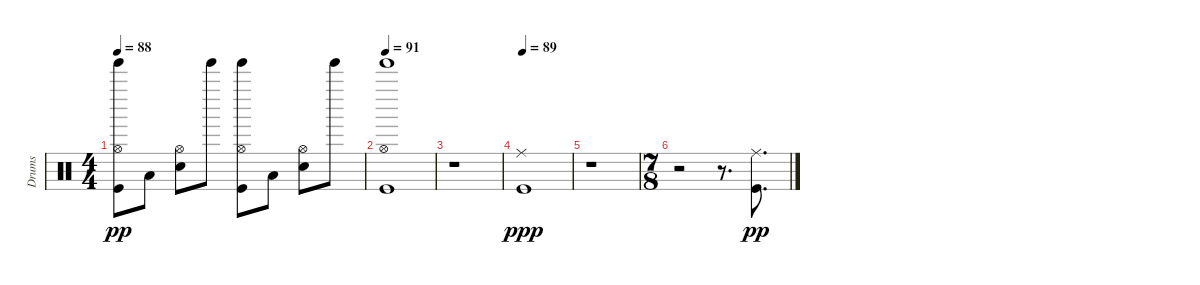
\track ("Drums" "Drums") {instrument percussion}
\staff {score}
\articulation defaults
\ts (4 4)
\tempo 88
\clef neutral
\ks c
("Kick (hit)" "Hi-Hat (open)" "Tinkle Bell (hit)").8{dy pp} "Low Tom (hit)".8 ("Snare (hit) 2" "Hi-Hat (open)").8 "Tinkle Bell (hit)".8 ("Kick (hit)" "Hi-Hat (open)" "Tinkle Bell (hit)").8 "Low Tom (hit)".8 ("Snare (hit) 2" "Hi-Hat (open)").8 "Tinkle Bell (hit)".8 |
\tempo 91
("Kick (hit)" "Hi-Hat (open)" "Tinkle Bell (hit)").1 |
r.1 |
\tempo 89
("Kick (hit)" "Ride (middle)").1{dy ppp} |
r.1 |
\ts (7 8)
r.2 r.8{d} ("Kick (hit)" "Ride (middle)").8{d dy pp}
